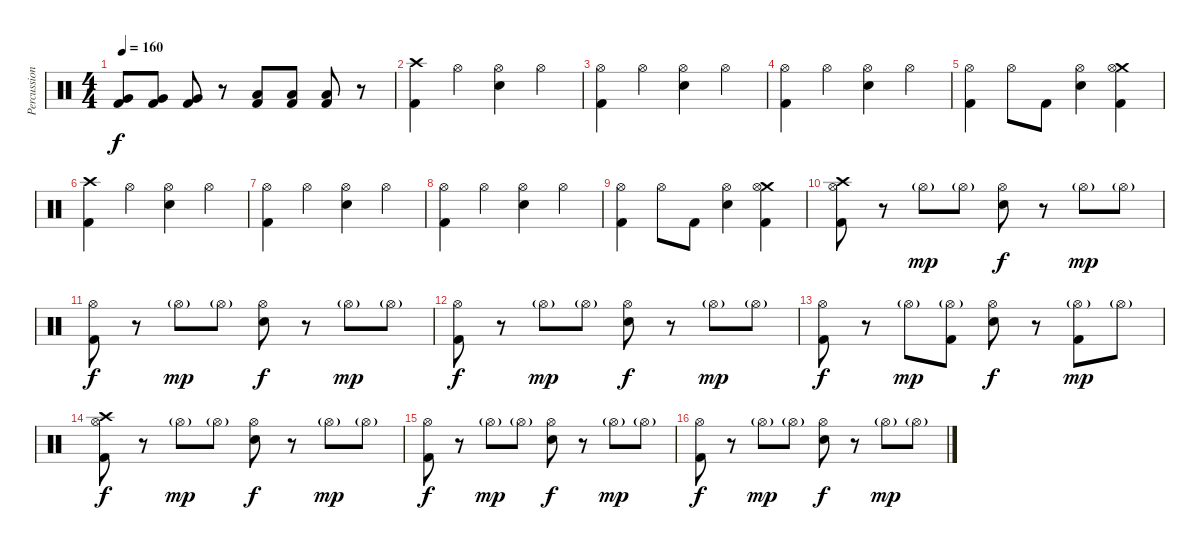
\track ("Percussion" "Percussion") {instrument percussion}
\staff {score}
\articulation defaults
\ts (4 4)
\tempo 160
\clef neutral
\ks c
("Very Low Tom (hit)" "Kick (hit) 2").8{dy f} ("Very Low Tom (hit)" "Kick (hit) 2").8 ("Very Low Tom (hit)" "Kick (hit) 2").8 r.8 ("Low Floor Tom (hit)" "Kick (hit) 2").8 ("Low Floor Tom (hit)" "Kick (hit) 2").8 ("Low Floor Tom (hit)" "Kick (hit) 2").8 r.8 |
("Crash high (hit)" "Kick (hit) 2").4 "Hi-Hat (open)".4 ("Hi-Hat (open)" "Electric Snare (hit)").4 "Hi-Hat (open)".4 |
("Hi-Hat (open)" "Kick (hit) 2").4 "Hi-Hat (open)".4 ("Hi-Hat (open)" "Electric Snare (hit)").4 "Hi-Hat (open)".4 |
("Hi-Hat (open)" "Kick (hit) 2").4 "Hi-Hat (open)".4 ("Hi-Hat (open)" "Electric Snare (hit)").4 "Hi-Hat (open)".4 |
("Hi-Hat (open)" "Kick (hit) 2").4 "Hi-Hat (open)".8 "Kick (hit) 2".8 ("Hi-Hat (open)" "Electric Snare (hit)").4 ("Crash medium (hit)" "Hi-Hat (open)" "Kick (hit) 2").4 |
("Crash high (hit)" "Kick (hit) 2").4 "Hi-Hat (open)".4 ("Hi-Hat (open)" "Electric Snare (hit)").4 "Hi-Hat (open)".4 |
("Hi-Hat (open)" "Kick (hit) 2").4 "Hi-Hat (open)".4 ("Hi-Hat (open)" "Electric Snare (hit)").4 "Hi-Hat (open)".4 |
("Hi-Hat (open)" "Kick (hit) 2").4 "Hi-Hat (open)".4 ("Hi-Hat (open)" "Electric Snare (hit)").4 "Hi-Hat (open)".4 |
("Hi-Hat (open)" "Kick (hit) 2").4 "Hi-Hat (open)".8 "Kick (hit) 2".8 ("Hi-Hat (open)" "Electric Snare (hit)").4 ("Crash medium (hit)" "Hi-Hat (open)" "Kick (hit) 2").4 |
("Crash high (hit)" "Hi-Hat (open)" "Kick (hit) 2").8 r.8 "Hi-Hat (open)"{g}.8{dy mp} "Hi-Hat (open)"{g}.8 ("Hi-Hat (open)" "Electric Snare (hit)").8{dy f} r.8 "Hi-Hat (open)"{g}.8{dy mp} "Hi-Hat (open)"{g}.8 |
("Hi-Hat (open)" "Kick (hit) 2").8{dy f} r.8 "Hi-Hat (open)"{g}.8{dy mp} "Hi-Hat (open)"{g}.8 ("Hi-Hat (open)" "Electric Snare (hit)").8{dy f} r.8 "Hi-Hat (open)"{g}.8{dy mp} "Hi-Hat (open)"{g}.8 |
("Hi-Hat (open)" "Kick (hit) 2").8{dy f} r.8 "Hi-Hat (open)"{g}.8{dy mp} "Hi-Hat (open)"{g}.8 ("Hi-Hat (open)" "Electric Snare (hit)").8{dy f} r.8 "Hi-Hat (open)"{g}.8{dy mp} "Hi-Hat (open)"{g}.8 |
("Hi-Hat (open)" "Kick (hit) 2").8{dy f} r.8 "Hi-Hat (open)"{g}.8{dy mp} ("Hi-Hat (open)"{g} "Kick (hit) 2").8 ("Hi-Hat (open)" "Electric Snare (hit)").8{dy f} r.8 ("Hi-Hat (open)"{g} "Kick (hit) 2").8{dy mp} "Hi-Hat (open)"{g}.8 |
("Crash high (hit)" "Hi-Hat (open)" "Kick (hit) 2").8{dy f} r.8 "Hi-Hat (open)"{g}.8{dy mp} "Hi-Hat (open)"{g}.8 ("Hi-Hat (open)" "Electric Snare (hit)").8{dy f} r.8 "Hi-Hat (open)"{g}.8{dy mp} "Hi-Hat (open)"{g}.8 |
("Hi-Hat (open)" "Kick (hit) 2").8{dy f} r.8 "Hi-Hat (open)"{g}.8{dy mp} "Hi-Hat (open)"{g}.8 ("Hi-Hat (open)" "Electric Snare (hit)").8{dy f} r.8 "Hi-Hat (open)"{g}.8{dy mp} "Hi-Hat (open)"{g}.8 |
("Hi-Hat (open)" "Kick (hit) 2").8{dy f} r.8 "Hi-Hat (open)"{g}.8{dy mp} "Hi-Hat (open)"{g}.8 ("Hi-Hat (open)" "Electric Snare (hit)").8{dy f} r.8 "Hi-Hat (open)"{g}.8{dy mp} "Hi-Hat (open)"{g}.8
